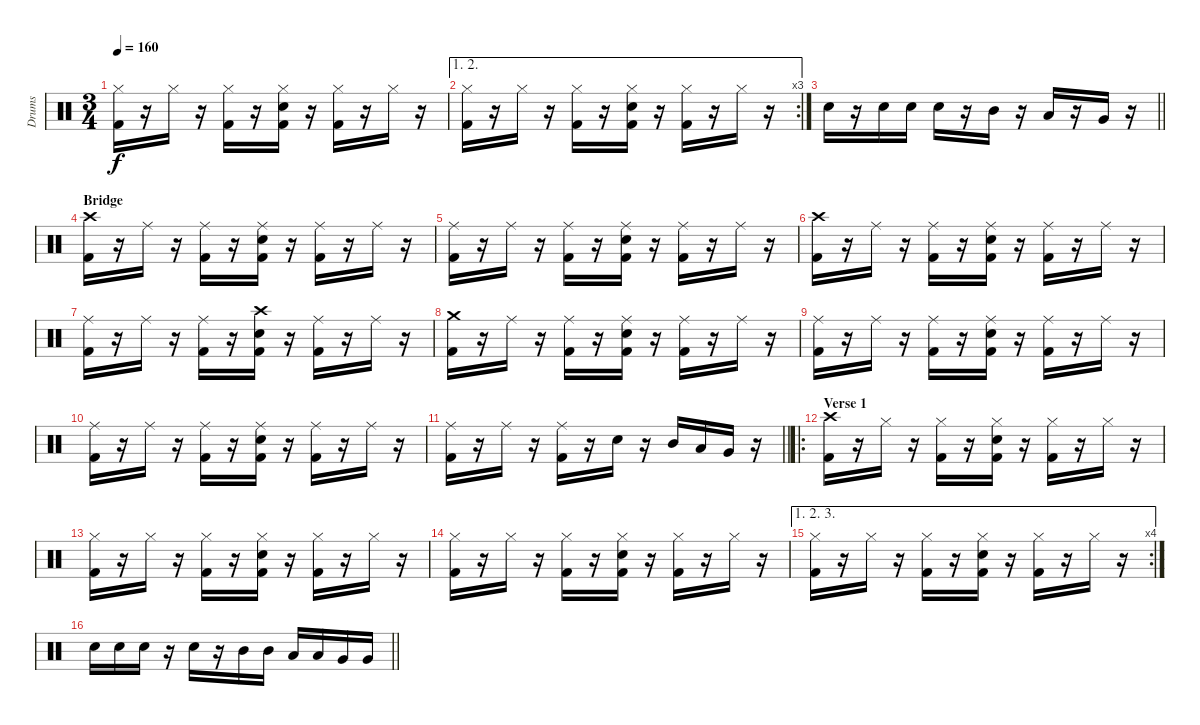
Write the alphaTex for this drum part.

\track ("Drums" "Drums") {instrument percussion}
\staff {score}
\articulation defaults
\ts (3 4)
\tempo 160
\clef neutral
\ks c
("Hi-Hat (closed)" "Kick (hit) 2").16{dy f} r.16 "Hi-Hat (closed)".16 r.16 ("Hi-Hat (closed)" "Kick (hit) 2").16 r.16 ("Hi-Hat (closed)" "Snare (hit) 2" "Kick (hit) 2").16 r.16 ("Hi-Hat (closed)" "Kick (hit) 2").16 r.16 "Hi-Hat (closed)".16 r.16 |
\ae (1 2)
\rc 3
("Hi-Hat (closed)" "Kick (hit) 2").16 r.16 "Hi-Hat (closed)".16 r.16 ("Hi-Hat (closed)" "Kick (hit) 2").16 r.16 ("Hi-Hat (closed)" "Snare (hit) 2" "Kick (hit) 2").16 r.16 ("Hi-Hat (closed)" "Kick (hit) 2").16 r.16 "Hi-Hat (closed)".16 r.16 |
\barLineRight lightlight "Snare (hit) 2".16
r.16 "Snare (hit) 2".16 "Snare (hit) 2".16 "Snare (hit) 2".16 r.16 "Mid Tom (hit)".16 r.16 "Low Tom (hit)".16 r.16 "Very Low Tom (hit)".16 r.16 |
\section ("" "Bridge")
("Crash high (hit)" "Kick (hit) 2").16 r.16 "Ride (middle)".16 r.16 ("Ride (middle)" "Kick (hit) 2").16 r.16 ("Ride (middle)" "Snare (hit) 2" "Kick (hit) 2").16 r.16 ("Ride (middle)" "Kick (hit) 2").16 r.16 "Ride (middle)".16 r.16 |
("Ride (middle)" "Kick (hit) 2").16 r.16 "Ride (middle)".16 r.16 ("Ride (middle)" "Kick (hit) 2").16 r.16 ("Ride (middle)" "Snare (hit) 2" "Kick (hit) 2").16 r.16 ("Ride (middle)" "Kick (hit) 2").16 r.16 "Ride (middle)".16 r.16 |
("Crash high (hit)" "Kick (hit) 2").16 r.16 "Ride (middle)".16 r.16 ("Ride (middle)" "Kick (hit) 2").16 r.16 ("Ride (middle)" "Snare (hit) 2" "Kick (hit) 2").16 r.16 ("Ride (middle)" "Kick (hit) 2").16 r.16 "Ride (middle)".16 r.16 |
("Ride (middle)" "Kick (hit) 2").16 r.16 "Ride (middle)".16 r.16 ("Ride (middle)" "Kick (hit) 2").16 r.16 ("Crash high (hit)" "Snare (hit) 2" "Kick (hit) 2").16 r.16 ("Ride (middle)" "Kick (hit) 2").16 r.16 "Ride (middle)".16 r.16 |
("Crash medium (hit)" "Kick (hit) 2").16 r.16 "Ride (middle)".16 r.16 ("Ride (middle)" "Kick (hit) 2").16 r.16 ("Ride (middle)" "Snare (hit) 2" "Kick (hit) 2").16 r.16 ("Ride (middle)" "Kick (hit) 2").16 r.16 "Ride (middle)".16 r.16 |
("Ride (middle)" "Kick (hit) 2").16 r.16 "Ride (middle)".16 r.16 ("Ride (middle)" "Kick (hit) 2").16 r.16 ("Ride (middle)" "Snare (hit) 2" "Kick (hit) 2").16 r.16 ("Ride (middle)" "Kick (hit) 2").16 r.16 "Ride (middle)".16 r.16 |
("Ride (middle)" "Kick (hit) 2").16 r.16 "Ride (middle)".16 r.16 ("Ride (middle)" "Kick (hit) 2").16 r.16 ("Ride (middle)" "Snare (hit) 2" "Kick (hit) 2").16 r.16 ("Ride (middle)" "Kick (hit) 2").16 r.16 "Ride (middle)".16 r.16 |
\barLineRight lightlight
("Ride (middle)" "Kick (hit) 2").16 r.16 "Ride (middle)".16 r.16 ("Ride (middle)" "Kick (hit) 2").16 r.16 "Snare (hit) 2".16 r.16 "Mid Tom (hit)".16 "Low Tom (hit)".16 "Very Low Tom (hit)".16 r.16 |
\ro
\section ("" "Verse 1")
("Crash high (hit)" "Kick (hit) 2").16 r.16 "Hi-Hat (closed)".16 r.16 ("Hi-Hat (closed)" "Kick (hit) 2").16 r.16 ("Hi-Hat (closed)" "Snare (hit) 2" "Kick (hit) 2").16 r.16 ("Hi-Hat (closed)" "Kick (hit) 2").16 r.16 "Hi-Hat (closed)".16 r.16 |
("Hi-Hat (closed)" "Kick (hit) 2").16 r.16 "Hi-Hat (closed)".16 r.16 ("Hi-Hat (closed)" "Kick (hit) 2").16 r.16 ("Hi-Hat (closed)" "Snare (hit) 2" "Kick (hit) 2").16 r.16 ("Hi-Hat (closed)" "Kick (hit) 2").16 r.16 "Hi-Hat (closed)".16 r.16 |
("Hi-Hat (closed)" "Kick (hit) 2").16 r.16 "Hi-Hat (closed)".16 r.16 ("Hi-Hat (closed)" "Kick (hit) 2").16 r.16 ("Hi-Hat (closed)" "Snare (hit) 2" "Kick (hit) 2").16 r.16 ("Hi-Hat (closed)" "Kick (hit) 2").16 r.16 "Hi-Hat (closed)".16 r.16 |
\ae (1 2 3)
\rc 4
("Hi-Hat (closed)" "Kick (hit) 2").16 r.16 "Hi-Hat (closed)".16 r.16 ("Hi-Hat (closed)" "Kick (hit) 2").16 r.16 ("Hi-Hat (closed)" "Snare (hit) 2" "Kick (hit) 2").16 r.16 ("Hi-Hat (closed)" "Kick (hit) 2").16 r.16 "Hi-Hat (closed)".16 r.16 |
\barLineRight lightlight "Snare (hit) 2".16 "Snare (hit) 2".16 "Snare (hit) 2".16
r.16 "Snare (hit) 2".16 r.16 "Mid Tom (hit)".16 "Mid Tom (hit)".16 "Low Tom (hit)".16 "Low Tom (hit)".16 "Very Low Tom (hit)".16 "Very Low Tom (hit)".16
